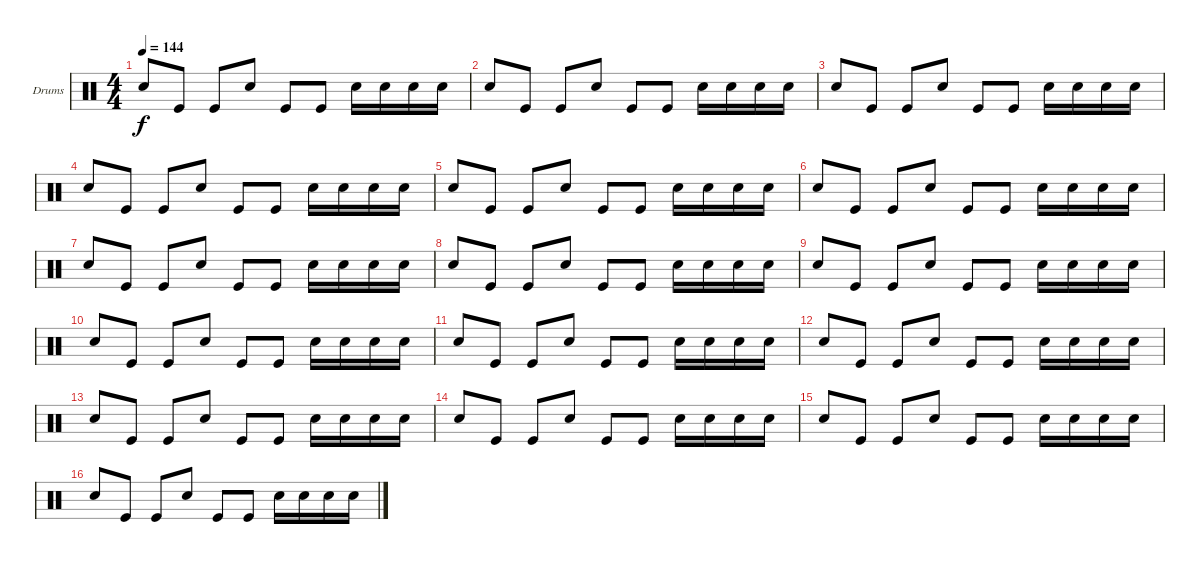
\bracketExtendMode groupsimilarinstruments
\firstSystemTrackNameOrientation horizontal
\otherSystemsTrackNameOrientation horizontal
\track ("Drumkit" "Drums") {instrument percussion}
\staff {score}
\articulation defaults
\ts (4 4)
\tempo 144
\clef neutral
\ks c "Snare (hit) 2".8{dy f} "Kick (hit)".8 "Kick (hit)".8 "Snare (hit) 2".8 "Kick (hit)".8 "Kick (hit)".8 "Snare (hit) 2".16 "Snare (hit) 2".16 "Snare (hit) 2".16 "Snare (hit) 2".16
|
"Snare (hit) 2".8 "Kick (hit)".8 "Kick (hit)".8 "Snare (hit) 2".8 "Kick (hit)".8 "Kick (hit)".8 "Snare (hit) 2".16 "Snare (hit) 2".16 "Snare (hit) 2".16 "Snare (hit) 2".16 |
"Snare (hit) 2".8 "Kick (hit)".8 "Kick (hit)".8 "Snare (hit) 2".8 "Kick (hit)".8 "Kick (hit)".8 "Snare (hit) 2".16 "Snare (hit) 2".16 "Snare (hit) 2".16 "Snare (hit) 2".16 |
"Snare (hit) 2".8 "Kick (hit)".8 "Kick (hit)".8 "Snare (hit) 2".8 "Kick (hit)".8 "Kick (hit)".8 "Snare (hit) 2".16 "Snare (hit) 2".16 "Snare (hit) 2".16 "Snare (hit) 2".16 |
"Snare (hit) 2".8 "Kick (hit)".8 "Kick (hit)".8 "Snare (hit) 2".8 "Kick (hit)".8 "Kick (hit)".8 "Snare (hit) 2".16 "Snare (hit) 2".16 "Snare (hit) 2".16 "Snare (hit) 2".16 |
"Snare (hit) 2".8 "Kick (hit)".8 "Kick (hit)".8 "Snare (hit) 2".8 "Kick (hit)".8 "Kick (hit)".8 "Snare (hit) 2".16 "Snare (hit) 2".16 "Snare (hit) 2".16 "Snare (hit) 2".16 |
"Snare (hit) 2".8 "Kick (hit)".8 "Kick (hit)".8 "Snare (hit) 2".8 "Kick (hit)".8 "Kick (hit)".8 "Snare (hit) 2".16 "Snare (hit) 2".16 "Snare (hit) 2".16 "Snare (hit) 2".16 |
"Snare (hit) 2".8 "Kick (hit)".8 "Kick (hit)".8 "Snare (hit) 2".8 "Kick (hit)".8 "Kick (hit)".8 "Snare (hit) 2".16 "Snare (hit) 2".16 "Snare (hit) 2".16 "Snare (hit) 2".16 |
"Snare (hit) 2".8 "Kick (hit)".8 "Kick (hit)".8 "Snare (hit) 2".8 "Kick (hit)".8 "Kick (hit)".8 "Snare (hit) 2".16 "Snare (hit) 2".16 "Snare (hit) 2".16 "Snare (hit) 2".16 |
"Snare (hit) 2".8 "Kick (hit)".8 "Kick (hit)".8 "Snare (hit) 2".8 "Kick (hit)".8 "Kick (hit)".8 "Snare (hit) 2".16 "Snare (hit) 2".16 "Snare (hit) 2".16 "Snare (hit) 2".16 |
"Snare (hit) 2".8 "Kick (hit)".8 "Kick (hit)".8 "Snare (hit) 2".8 "Kick (hit)".8 "Kick (hit)".8 "Snare (hit) 2".16 "Snare (hit) 2".16 "Snare (hit) 2".16 "Snare (hit) 2".16 |
"Snare (hit) 2".8 "Kick (hit)".8 "Kick (hit)".8 "Snare (hit) 2".8 "Kick (hit)".8 "Kick (hit)".8 "Snare (hit) 2".16 "Snare (hit) 2".16 "Snare (hit) 2".16 "Snare (hit) 2".16 |
"Snare (hit) 2".8 "Kick (hit)".8 "Kick (hit)".8 "Snare (hit) 2".8 "Kick (hit)".8 "Kick (hit)".8 "Snare (hit) 2".16 "Snare (hit) 2".16 "Snare (hit) 2".16 "Snare (hit) 2".16 |
"Snare (hit) 2".8 "Kick (hit)".8 "Kick (hit)".8 "Snare (hit) 2".8 "Kick (hit)".8 "Kick (hit)".8 "Snare (hit) 2".16 "Snare (hit) 2".16 "Snare (hit) 2".16 "Snare (hit) 2".16 |
"Snare (hit) 2".8 "Kick (hit)".8 "Kick (hit)".8 "Snare (hit) 2".8 "Kick (hit)".8 "Kick (hit)".8 "Snare (hit) 2".16 "Snare (hit) 2".16 "Snare (hit) 2".16 "Snare (hit) 2".16 |
"Snare (hit) 2".8 "Kick (hit)".8 "Kick (hit)".8 "Snare (hit) 2".8 "Kick (hit)".8 "Kick (hit)".8 "Snare (hit) 2".16 "Snare (hit) 2".16 "Snare (hit) 2".16 "Snare (hit) 2".16
